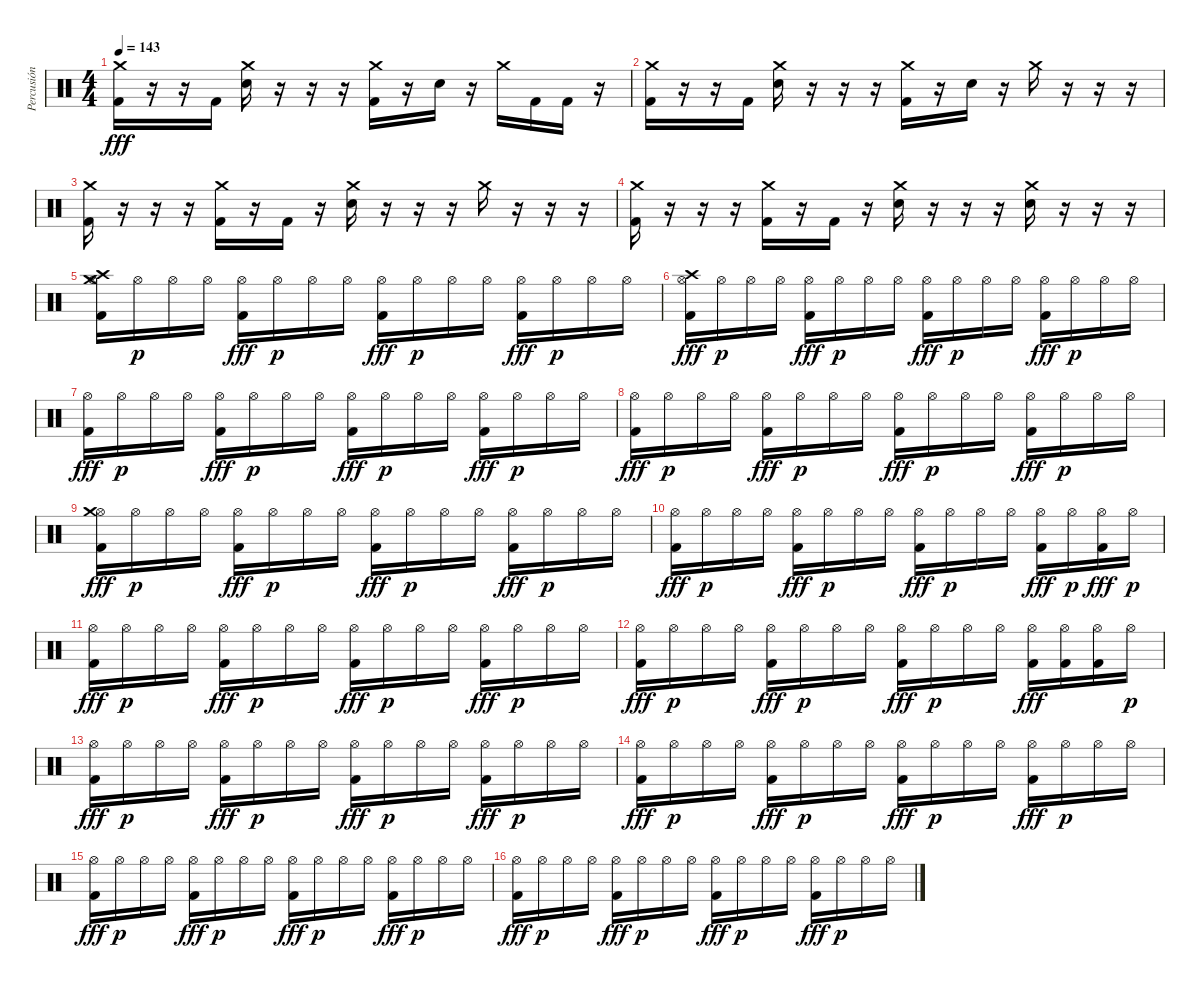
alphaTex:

\track ("Percusión" "Percusión") {instrument percussion}
\staff {score}
\articulation defaults
\ts (4 4)
\tempo 143
\clef neutral
\ks c
("Crash medium (hit)" "Kick (hit) 2").16{dy fff} r.16 r.16 "Kick (hit) 2".16 ("Crash medium (hit)" "Snare (hit) 2").16 r.16 r.16 r.16 ("Crash medium (hit)" "Kick (hit) 2").16 r.16 "Snare (hit) 2".16 r.16 "Crash medium (hit)".16 "Kick (hit) 2".16 "Kick (hit) 2".16 r.16 |
("Crash medium (hit)" "Kick (hit) 2").16 r.16 r.16 "Kick (hit) 2".16 ("Crash medium (hit)" "Snare (hit) 2").16 r.16 r.16 r.16 ("Crash medium (hit)" "Kick (hit) 2").16 r.16 "Snare (hit) 2".16 r.16 "Crash medium (hit)".16 r.16 r.16 r.16 |
("Crash medium (hit)" "Kick (hit) 2").16 r.16 r.16 r.16 ("Crash medium (hit)" "Kick (hit) 2").16 r.16 "Kick (hit) 2".16 r.16 ("Crash medium (hit)" "Snare (hit) 2").16 r.16 r.16 r.16 "Crash medium (hit)".16 r.16 r.16 r.16 |
("Crash medium (hit)" "Kick (hit) 2").16 r.16 r.16 r.16 ("Crash medium (hit)" "Kick (hit) 2").16 r.16 "Kick (hit) 2".16 r.16 ("Crash medium (hit)" "Snare (hit) 2").16 r.16 r.16 r.16 ("Crash medium (hit)" "Snare (hit) 2").16 r.16 r.16 r.16 |
("Hi-Hat (open)" "Crash medium (hit)" "Crash high (hit)" "Kick (hit) 2").16 "Hi-Hat (open)".16{dy p} "Hi-Hat (open)".16 "Hi-Hat (open)".16 ("Hi-Hat (open)" "Kick (hit) 2").16{dy fff} "Hi-Hat (open)".16{dy p} "Hi-Hat (open)".16 "Hi-Hat (open)".16 ("Hi-Hat (open)" "Kick (hit) 2").16{dy fff} "Hi-Hat (open)".16{dy p} "Hi-Hat (open)".16 "Hi-Hat (open)".16 ("Hi-Hat (open)" "Kick (hit) 2").16{dy fff} "Hi-Hat (open)".16{dy p} "Hi-Hat (open)".16 "Hi-Hat (open)".16 |
("Hi-Hat (open)" "Crash high (hit)" "Kick (hit) 2").16{dy fff} "Hi-Hat (open)".16{dy p} "Hi-Hat (open)".16 "Hi-Hat (open)".16 ("Hi-Hat (open)" "Kick (hit) 2").16{dy fff} "Hi-Hat (open)".16{dy p} "Hi-Hat (open)".16 "Hi-Hat (open)".16 ("Hi-Hat (open)" "Kick (hit) 2").16{dy fff} "Hi-Hat (open)".16{dy p} "Hi-Hat (open)".16 "Hi-Hat (open)".16 ("Hi-Hat (open)" "Kick (hit) 2").16{dy fff} "Hi-Hat (open)".16{dy p} "Hi-Hat (open)".16 "Hi-Hat (open)".16 |
("Hi-Hat (open)" "Kick (hit) 2").16{dy fff} "Hi-Hat (open)".16{dy p} "Hi-Hat (open)".16 "Hi-Hat (open)".16 ("Hi-Hat (open)" "Kick (hit) 2").16{dy fff} "Hi-Hat (open)".16{dy p} "Hi-Hat (open)".16 "Hi-Hat (open)".16 ("Hi-Hat (open)" "Kick (hit) 2").16{dy fff} "Hi-Hat (open)".16{dy p} "Hi-Hat (open)".16 "Hi-Hat (open)".16 ("Hi-Hat (open)" "Kick (hit) 2").16{dy fff} "Hi-Hat (open)".16{dy p} "Hi-Hat (open)".16 "Hi-Hat (open)".16 |
("Hi-Hat (open)" "Kick (hit) 2").16{dy fff} "Hi-Hat (open)".16{dy p} "Hi-Hat (open)".16 "Hi-Hat (open)".16 ("Hi-Hat (open)" "Kick (hit) 2").16{dy fff} "Hi-Hat (open)".16{dy p} "Hi-Hat (open)".16 "Hi-Hat (open)".16 ("Hi-Hat (open)" "Kick (hit) 2").16{dy fff} "Hi-Hat (open)".16{dy p} "Hi-Hat (open)".16 "Hi-Hat (open)".16 ("Hi-Hat (open)" "Kick (hit) 2").16{dy fff} "Hi-Hat (open)".16{dy p} "Hi-Hat (open)".16 "Hi-Hat (open)".16 |
("Hi-Hat (open)" "Crash medium (hit)" "Kick (hit) 2").16{dy fff} "Hi-Hat (open)".16{dy p} "Hi-Hat (open)".16 "Hi-Hat (open)".16 ("Hi-Hat (open)" "Kick (hit) 2").16{dy fff} "Hi-Hat (open)".16{dy p} "Hi-Hat (open)".16 "Hi-Hat (open)".16 ("Hi-Hat (open)" "Kick (hit) 2").16{dy fff} "Hi-Hat (open)".16{dy p} "Hi-Hat (open)".16 "Hi-Hat (open)".16 ("Hi-Hat (open)" "Kick (hit) 2").16{dy fff} "Hi-Hat (open)".16{dy p} "Hi-Hat (open)".16 "Hi-Hat (open)".16 |
("Hi-Hat (open)" "Kick (hit) 2").16{dy fff} "Hi-Hat (open)".16{dy p} "Hi-Hat (open)".16 "Hi-Hat (open)".16 ("Hi-Hat (open)" "Kick (hit) 2").16{dy fff} "Hi-Hat (open)".16{dy p} "Hi-Hat (open)".16 "Hi-Hat (open)".16 ("Hi-Hat (open)" "Kick (hit) 2").16{dy fff} "Hi-Hat (open)".16{dy p} "Hi-Hat (open)".16 "Hi-Hat (open)".16 ("Hi-Hat (open)" "Kick (hit) 2").16{dy fff} "Hi-Hat (open)".16{dy p} ("Hi-Hat (open)" "Kick (hit) 2").16{dy fff} "Hi-Hat (open)".16{dy p} |
("Hi-Hat (open)" "Kick (hit) 2").16{dy fff} "Hi-Hat (open)".16{dy p} "Hi-Hat (open)".16 "Hi-Hat (open)".16 ("Hi-Hat (open)" "Kick (hit) 2").16{dy fff} "Hi-Hat (open)".16{dy p} "Hi-Hat (open)".16 "Hi-Hat (open)".16 ("Hi-Hat (open)" "Kick (hit) 2").16{dy fff} "Hi-Hat (open)".16{dy p} "Hi-Hat (open)".16 "Hi-Hat (open)".16 ("Hi-Hat (open)" "Kick (hit) 2").16{dy fff} "Hi-Hat (open)".16{dy p} "Hi-Hat (open)".16 "Hi-Hat (open)".16 |
("Hi-Hat (open)" "Kick (hit) 2").16{dy fff} "Hi-Hat (open)".16{dy p} "Hi-Hat (open)".16 "Hi-Hat (open)".16 ("Hi-Hat (open)" "Kick (hit) 2").16{dy fff} "Hi-Hat (open)".16{dy p} "Hi-Hat (open)".16 "Hi-Hat (open)".16 ("Hi-Hat (open)" "Kick (hit) 2").16{dy fff} "Hi-Hat (open)".16{dy p} "Hi-Hat (open)".16 "Hi-Hat (open)".16 ("Hi-Hat (open)" "Kick (hit) 2").16{dy fff} ("Hi-Hat (open)" "Kick (hit) 2").16 ("Hi-Hat (open)" "Kick (hit) 2").16 "Hi-Hat (open)".16{dy p} |
("Hi-Hat (open)" "Kick (hit) 2").16{dy fff} "Hi-Hat (open)".16{dy p} "Hi-Hat (open)".16 "Hi-Hat (open)".16 ("Hi-Hat (open)" "Kick (hit) 2").16{dy fff} "Hi-Hat (open)".16{dy p} "Hi-Hat (open)".16 "Hi-Hat (open)".16 ("Hi-Hat (open)" "Kick (hit) 2").16{dy fff} "Hi-Hat (open)".16{dy p} "Hi-Hat (open)".16 "Hi-Hat (open)".16 ("Hi-Hat (open)" "Kick (hit) 2").16{dy fff} "Hi-Hat (open)".16{dy p} "Hi-Hat (open)".16 "Hi-Hat (open)".16 |
("Hi-Hat (open)" "Kick (hit) 2").16{dy fff} "Hi-Hat (open)".16{dy p} "Hi-Hat (open)".16 "Hi-Hat (open)".16 ("Hi-Hat (open)" "Kick (hit) 2").16{dy fff} "Hi-Hat (open)".16{dy p} "Hi-Hat (open)".16 "Hi-Hat (open)".16 ("Hi-Hat (open)" "Kick (hit) 2").16{dy fff} "Hi-Hat (open)".16{dy p} "Hi-Hat (open)".16 "Hi-Hat (open)".16 ("Hi-Hat (open)" "Kick (hit) 2").16{dy fff} "Hi-Hat (open)".16{dy p} "Hi-Hat (open)".16 "Hi-Hat (open)".16 |
("Hi-Hat (open)" "Kick (hit) 2").16{dy fff} "Hi-Hat (open)".16{dy p} "Hi-Hat (open)".16 "Hi-Hat (open)".16 ("Hi-Hat (open)" "Kick (hit) 2").16{dy fff} "Hi-Hat (open)".16{dy p} "Hi-Hat (open)".16 "Hi-Hat (open)".16 ("Hi-Hat (open)" "Kick (hit) 2").16{dy fff} "Hi-Hat (open)".16{dy p} "Hi-Hat (open)".16 "Hi-Hat (open)".16 ("Hi-Hat (open)" "Kick (hit) 2").16{dy fff} "Hi-Hat (open)".16{dy p} "Hi-Hat (open)".16 "Hi-Hat (open)".16 |
("Hi-Hat (open)" "Kick (hit) 2").16{dy fff} "Hi-Hat (open)".16{dy p} "Hi-Hat (open)".16 "Hi-Hat (open)".16 ("Hi-Hat (open)" "Kick (hit) 2").16{dy fff} "Hi-Hat (open)".16{dy p} "Hi-Hat (open)".16 "Hi-Hat (open)".16 ("Hi-Hat (open)" "Kick (hit) 2").16{dy fff} "Hi-Hat (open)".16{dy p} "Hi-Hat (open)".16 "Hi-Hat (open)".16 ("Hi-Hat (open)" "Kick (hit) 2").16{dy fff} "Hi-Hat (open)".16{dy p} "Hi-Hat (open)".16 "Hi-Hat (open)".16
